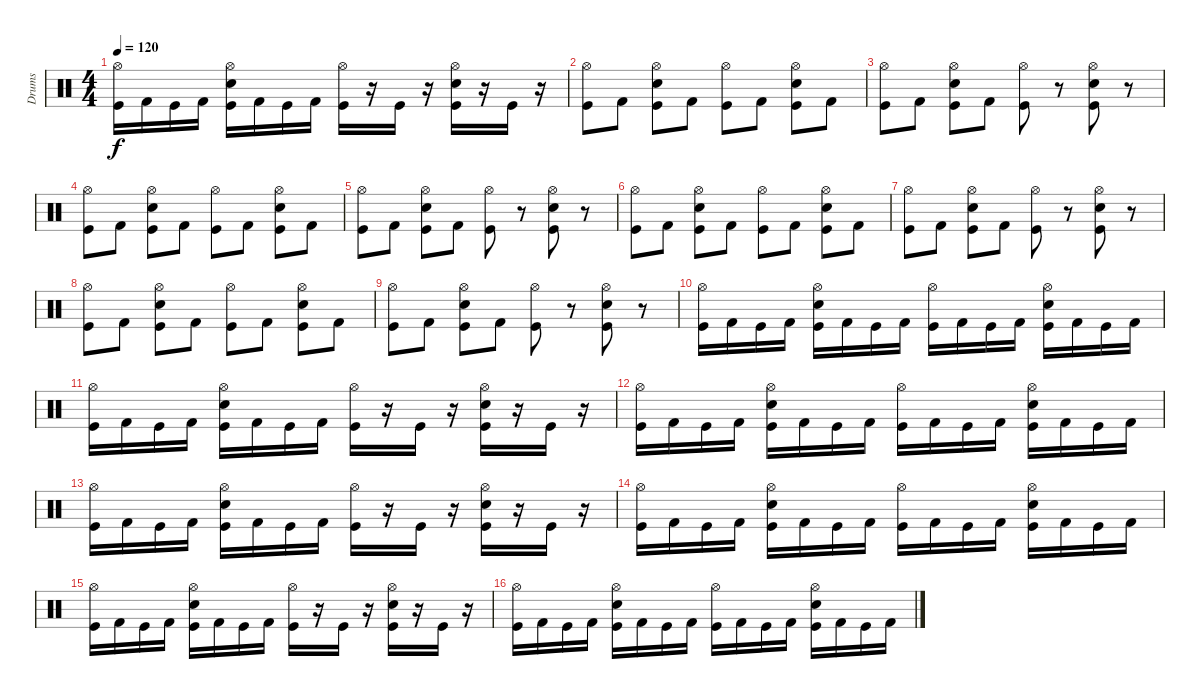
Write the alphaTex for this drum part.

\track ("Drums" "Drums") {instrument percussion}
\staff {score}
\articulation defaults
\ts (4 4)
\tempo 120
\clef neutral
\ks c
("Hi-Hat (open)" "Kick (hit)").16{dy f} "Kick (hit) 2".16 "Kick (hit)".16 "Kick (hit) 2".16 ("Hi-Hat (open)" "Snare (hit) 2" "Kick (hit)").16 "Kick (hit) 2".16 "Kick (hit)".16 "Kick (hit) 2".16 ("Hi-Hat (open)" "Kick (hit)").16 r.16 "Kick (hit)".16 r.16 ("Hi-Hat (open)" "Snare (hit) 2" "Kick (hit)").16 r.16 "Kick (hit)".16 r.16 |
("Hi-Hat (open)" "Kick (hit)").8 "Kick (hit) 2".8 ("Hi-Hat (open)" "Snare (hit) 2" "Kick (hit)").8 "Kick (hit) 2".8 ("Hi-Hat (open)" "Kick (hit)").8 "Kick (hit) 2".8 ("Hi-Hat (open)" "Snare (hit) 2" "Kick (hit)").8 "Kick (hit) 2".8 |
("Hi-Hat (open)" "Kick (hit)").8 "Kick (hit) 2".8 ("Hi-Hat (open)" "Snare (hit) 2" "Kick (hit)").8 "Kick (hit) 2".8 ("Hi-Hat (open)" "Kick (hit)").8 r.8 ("Hi-Hat (open)" "Snare (hit) 2" "Kick (hit)").8 r.8 |
("Hi-Hat (open)" "Kick (hit)").8 "Kick (hit) 2".8 ("Hi-Hat (open)" "Snare (hit) 2" "Kick (hit)").8 "Kick (hit) 2".8 ("Hi-Hat (open)" "Kick (hit)").8 "Kick (hit) 2".8 ("Hi-Hat (open)" "Snare (hit) 2" "Kick (hit)").8 "Kick (hit) 2".8 |
("Hi-Hat (open)" "Kick (hit)").8 "Kick (hit) 2".8 ("Hi-Hat (open)" "Snare (hit) 2" "Kick (hit)").8 "Kick (hit) 2".8 ("Hi-Hat (open)" "Kick (hit)").8 r.8 ("Hi-Hat (open)" "Snare (hit) 2" "Kick (hit)").8 r.8 |
("Hi-Hat (open)" "Kick (hit)").8 "Kick (hit) 2".8 ("Hi-Hat (open)" "Snare (hit) 2" "Kick (hit)").8 "Kick (hit) 2".8 ("Hi-Hat (open)" "Kick (hit)").8 "Kick (hit) 2".8 ("Hi-Hat (open)" "Snare (hit) 2" "Kick (hit)").8 "Kick (hit) 2".8 |
("Hi-Hat (open)" "Kick (hit)").8 "Kick (hit) 2".8 ("Hi-Hat (open)" "Snare (hit) 2" "Kick (hit)").8 "Kick (hit) 2".8 ("Hi-Hat (open)" "Kick (hit)").8 r.8 ("Hi-Hat (open)" "Snare (hit) 2" "Kick (hit)").8 r.8 |
("Hi-Hat (open)" "Kick (hit)").8 "Kick (hit) 2".8 ("Hi-Hat (open)" "Snare (hit) 2" "Kick (hit)").8 "Kick (hit) 2".8 ("Hi-Hat (open)" "Kick (hit)").8 "Kick (hit) 2".8 ("Hi-Hat (open)" "Snare (hit) 2" "Kick (hit)").8 "Kick (hit) 2".8 |
("Hi-Hat (open)" "Kick (hit)").8 "Kick (hit) 2".8 ("Hi-Hat (open)" "Snare (hit) 2" "Kick (hit)").8 "Kick (hit) 2".8 ("Hi-Hat (open)" "Kick (hit)").8 r.8 ("Hi-Hat (open)" "Snare (hit) 2" "Kick (hit)").8 r.8 |
("Hi-Hat (open)" "Kick (hit)").16 "Kick (hit) 2".16 "Kick (hit)".16 "Kick (hit) 2".16 ("Hi-Hat (open)" "Snare (hit) 2" "Kick (hit)").16 "Kick (hit) 2".16 "Kick (hit)".16 "Kick (hit) 2".16 ("Hi-Hat (open)" "Kick (hit)").16 "Kick (hit) 2".16 "Kick (hit)".16 "Kick (hit) 2".16 ("Hi-Hat (open)" "Snare (hit) 2" "Kick (hit)").16 "Kick (hit) 2".16 "Kick (hit)".16 "Kick (hit) 2".16 |
("Hi-Hat (open)" "Kick (hit)").16 "Kick (hit) 2".16 "Kick (hit)".16 "Kick (hit) 2".16 ("Hi-Hat (open)" "Snare (hit) 2" "Kick (hit)").16 "Kick (hit) 2".16 "Kick (hit)".16 "Kick (hit) 2".16 ("Hi-Hat (open)" "Kick (hit)").16 r.16 "Kick (hit)".16 r.16 ("Hi-Hat (open)" "Snare (hit) 2" "Kick (hit)").16 r.16 "Kick (hit)".16 r.16 |
("Hi-Hat (open)" "Kick (hit)").16 "Kick (hit) 2".16 "Kick (hit)".16 "Kick (hit) 2".16 ("Hi-Hat (open)" "Snare (hit) 2" "Kick (hit)").16 "Kick (hit) 2".16 "Kick (hit)".16 "Kick (hit) 2".16 ("Hi-Hat (open)" "Kick (hit)").16 "Kick (hit) 2".16 "Kick (hit)".16 "Kick (hit) 2".16 ("Hi-Hat (open)" "Snare (hit) 2" "Kick (hit)").16 "Kick (hit) 2".16 "Kick (hit)".16 "Kick (hit) 2".16 |
("Hi-Hat (open)" "Kick (hit)").16 "Kick (hit) 2".16 "Kick (hit)".16 "Kick (hit) 2".16 ("Hi-Hat (open)" "Snare (hit) 2" "Kick (hit)").16 "Kick (hit) 2".16 "Kick (hit)".16 "Kick (hit) 2".16 ("Hi-Hat (open)" "Kick (hit)").16 r.16 "Kick (hit)".16 r.16 ("Hi-Hat (open)" "Snare (hit) 2" "Kick (hit)").16 r.16 "Kick (hit)".16 r.16 |
("Hi-Hat (open)" "Kick (hit)").16 "Kick (hit) 2".16 "Kick (hit)".16 "Kick (hit) 2".16 ("Hi-Hat (open)" "Snare (hit) 2" "Kick (hit)").16 "Kick (hit) 2".16 "Kick (hit)".16 "Kick (hit) 2".16 ("Hi-Hat (open)" "Kick (hit)").16 "Kick (hit) 2".16 "Kick (hit)".16 "Kick (hit) 2".16 ("Hi-Hat (open)" "Snare (hit) 2" "Kick (hit)").16 "Kick (hit) 2".16 "Kick (hit)".16 "Kick (hit) 2".16 |
("Hi-Hat (open)" "Kick (hit)").16 "Kick (hit) 2".16 "Kick (hit)".16 "Kick (hit) 2".16 ("Hi-Hat (open)" "Snare (hit) 2" "Kick (hit)").16 "Kick (hit) 2".16 "Kick (hit)".16 "Kick (hit) 2".16 ("Hi-Hat (open)" "Kick (hit)").16 r.16 "Kick (hit)".16 r.16 ("Hi-Hat (open)" "Snare (hit) 2" "Kick (hit)").16 r.16 "Kick (hit)".16 r.16 |
("Hi-Hat (open)" "Kick (hit)").16 "Kick (hit) 2".16 "Kick (hit)".16 "Kick (hit) 2".16 ("Hi-Hat (open)" "Snare (hit) 2" "Kick (hit)").16 "Kick (hit) 2".16 "Kick (hit)".16 "Kick (hit) 2".16 ("Hi-Hat (open)" "Kick (hit)").16 "Kick (hit) 2".16 "Kick (hit)".16 "Kick (hit) 2".16 ("Hi-Hat (open)" "Snare (hit) 2" "Kick (hit)").16 "Kick (hit) 2".16 "Kick (hit)".16 "Kick (hit) 2".16
